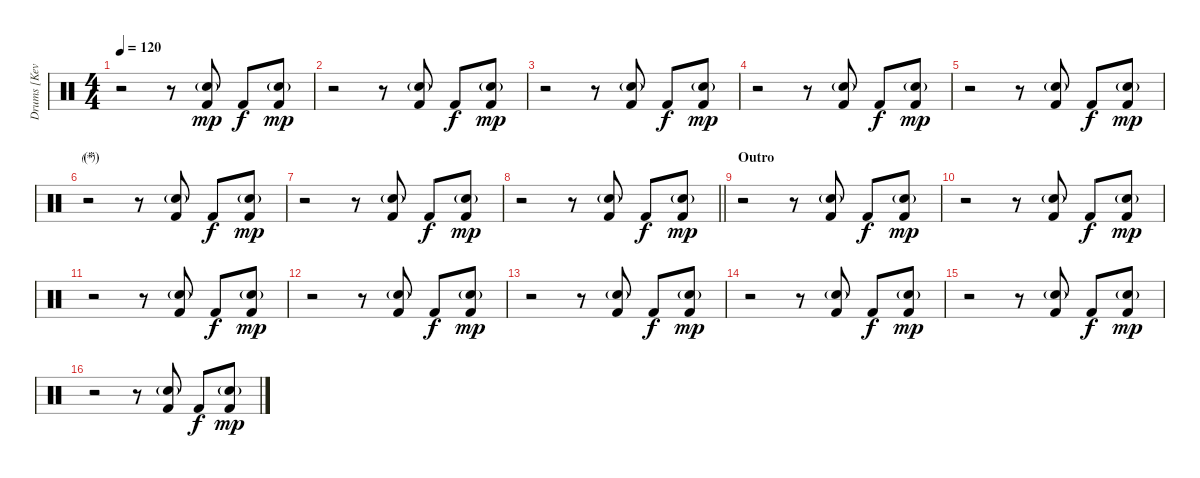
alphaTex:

\track ("Drums [Kevin Haskins]" "Drums [Kev") {instrument percussion}
\staff {score}
\articulation defaults
\chord ("(*)") {firstfret 0}
\ts (4 4)
\tempo 120
\clef neutral
\ks c
r.2{dy mp} r.8 ("Snare (hit) 2"{g} "Kick (hit) 2").8 "Kick (hit) 2".8{dy f} ("Snare (hit) 2"{g} "Kick (hit) 2").8{dy mp} |
r.2 r.8 ("Snare (hit) 2"{g} "Kick (hit) 2").8 "Kick (hit) 2".8{dy f} ("Snare (hit) 2"{g} "Kick (hit) 2").8{dy mp} |
r.2 r.8 ("Snare (hit) 2"{g} "Kick (hit) 2").8 "Kick (hit) 2".8{dy f} ("Snare (hit) 2"{g} "Kick (hit) 2").8{dy mp} |
r.2 r.8 ("Snare (hit) 2"{g} "Kick (hit) 2").8 "Kick (hit) 2".8{dy f} ("Snare (hit) 2"{g} "Kick (hit) 2").8{dy mp} |
r.2 r.8 ("Snare (hit) 2"{g} "Kick (hit) 2").8 "Kick (hit) 2".8{dy f} ("Snare (hit) 2"{g} "Kick (hit) 2").8{dy mp} |
\section ("" "(*)")
r.2{ch "(*)"} r.8 ("Snare (hit) 2"{g} "Kick (hit) 2").8 "Kick (hit) 2".8{dy f} ("Snare (hit) 2"{g} "Kick (hit) 2").8{dy mp} |
r.2 r.8 ("Snare (hit) 2"{g} "Kick (hit) 2").8 "Kick (hit) 2".8{dy f} ("Snare (hit) 2"{g} "Kick (hit) 2").8{dy mp} |
\barLineRight lightlight
r.2 r.8 ("Snare (hit) 2"{g} "Kick (hit) 2").8 "Kick (hit) 2".8{dy f} ("Snare (hit) 2"{g} "Kick (hit) 2").8{dy mp} |
\section ("" "Outro")
r.2 r.8 ("Snare (hit) 2"{g} "Kick (hit) 2").8 "Kick (hit) 2".8{dy f} ("Snare (hit) 2"{g} "Kick (hit) 2").8{dy mp} |
r.2 r.8 ("Snare (hit) 2"{g} "Kick (hit) 2").8 "Kick (hit) 2".8{dy f} ("Snare (hit) 2"{g} "Kick (hit) 2").8{dy mp} |
r.2 r.8 ("Snare (hit) 2"{g} "Kick (hit) 2").8 "Kick (hit) 2".8{dy f} ("Snare (hit) 2"{g} "Kick (hit) 2").8{dy mp} |
r.2 r.8 ("Snare (hit) 2"{g} "Kick (hit) 2").8 "Kick (hit) 2".8{dy f} ("Snare (hit) 2"{g} "Kick (hit) 2").8{dy mp} |
r.2 r.8 ("Snare (hit) 2"{g} "Kick (hit) 2").8 "Kick (hit) 2".8{dy f} ("Snare (hit) 2"{g} "Kick (hit) 2").8{dy mp} |
r.2 r.8 ("Snare (hit) 2"{g} "Kick (hit) 2").8 "Kick (hit) 2".8{dy f} ("Snare (hit) 2"{g} "Kick (hit) 2").8{dy mp} |
r.2 r.8 ("Snare (hit) 2"{g} "Kick (hit) 2").8 "Kick (hit) 2".8{dy f} ("Snare (hit) 2"{g} "Kick (hit) 2").8{dy mp} |
r.2 r.8 ("Snare (hit) 2"{g} "Kick (hit) 2").8 "Kick (hit) 2".8{dy f} ("Snare (hit) 2"{g} "Kick (hit) 2").8{dy mp}
